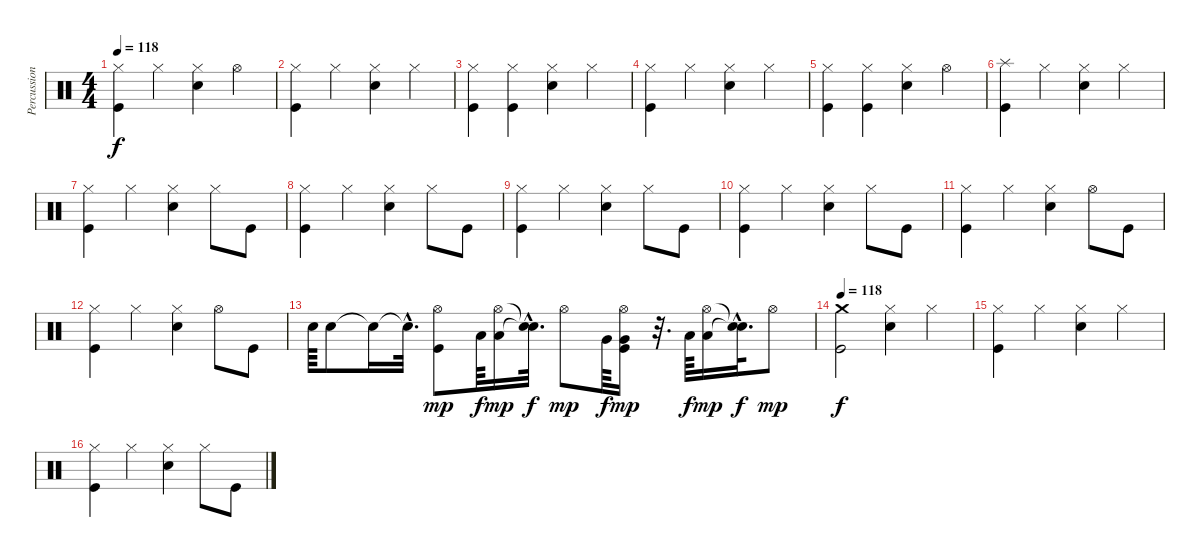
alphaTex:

\track ("Percussioni" "Percussion") {instrument percussion}
\staff {score}
\articulation defaults
\ts (4 4)
\tempo 118
\clef neutral
\ks c
("Hi-Hat (closed)" "Kick (hit)").4{dy f} "Hi-Hat (closed)".4 ("Hi-Hat (closed)" "Snare (hit) 2").4 "Hi-Hat (open)".4 |
("Hi-Hat (closed)" "Kick (hit)").4 "Hi-Hat (closed)".4 ("Hi-Hat (closed)" "Snare (hit) 2").4 "Hi-Hat (closed)".4 |
("Hi-Hat (closed)" "Kick (hit)").4 ("Hi-Hat (closed)" "Kick (hit)").4 ("Hi-Hat (closed)" "Snare (hit) 2").4 "Hi-Hat (closed)".4 |
("Hi-Hat (closed)" "Kick (hit)").4 "Hi-Hat (closed)".4 ("Hi-Hat (closed)" "Snare (hit) 2").4 "Hi-Hat (closed)".4 |
("Hi-Hat (closed)" "Kick (hit)").4 ("Hi-Hat (closed)" "Kick (hit)").4 ("Hi-Hat (closed)" "Snare (hit) 2").4 "Hi-Hat (open)".4 |
("Splash (hit)" "Kick (hit)").4 "Hi-Hat (closed)".4 ("Hi-Hat (closed)" "Snare (hit) 2").4 "Hi-Hat (closed)".4 |
("Hi-Hat (closed)" "Kick (hit)").4 "Hi-Hat (closed)".4 ("Hi-Hat (closed)" "Snare (hit) 2").4 "Hi-Hat (closed)".8 "Kick (hit)".8 |
("Hi-Hat (closed)" "Kick (hit)").4 "Hi-Hat (closed)".4 ("Hi-Hat (closed)" "Snare (hit) 2").4 "Hi-Hat (closed)".8 "Kick (hit)".8 |
("Hi-Hat (closed)" "Kick (hit)").4 "Hi-Hat (closed)".4 ("Hi-Hat (closed)" "Snare (hit) 2").4 "Hi-Hat (closed)".8 "Kick (hit)".8 |
("Hi-Hat (closed)" "Kick (hit)").4 "Hi-Hat (closed)".4 ("Hi-Hat (closed)" "Snare (hit) 2").4 "Hi-Hat (closed)".8 "Kick (hit)".8 |
("Hi-Hat (closed)" "Kick (hit)").4 "Hi-Hat (closed)".4 ("Hi-Hat (closed)" "Snare (hit) 2").4 "Hi-Hat (open)".8 "Kick (hit)".8 |
("Hi-Hat (closed)" "Kick (hit)").4 "Hi-Hat (closed)".4 ("Hi-Hat (closed)" "Snare (hit) 2").4 "Hi-Hat (open)".8 "Kick (hit)".8 |
"Snare (hit) 2".64 "Snare (hit) 2".8 "Snare (hit)"{t}.16 "Snare (hit)"{hac t}.32{d} ("Hi-Hat (open)" "Kick (hit)").8{dy mp} "Low Tom (hit)".64{dy f} ("Low Tom (hit)" "Hi-Hat (open)").16{dy mp} ("Snare (hit)"{hac t} "Snare (hit)"{hac t}).32{d dy f} "Hi-Hat (open)".8{dy mp} "Very Low Tom (hit)".64{dy f} ("Very Low Tom (hit)" "Hi-Hat (open)" "Kick (hit)").16{dy mp} r.32{d} "Low Floor Tom (hit)".64{dy f} ("Low Floor Tom (hit)" "Hi-Hat (open)").16{dy mp} ("Snare (hit)"{hac t} "Snare (hit)"{hac t}).32{d dy f} "Hi-Hat (open)".8{dy mp} |
\tempo 118
("Crash medium (hit)" "Kick (hit)").2{dy f} ("Hi-Hat (closed)" "Snare (hit) 2").4 "Hi-Hat (closed)".4 |
("Hi-Hat (closed)" "Kick (hit)").4 "Hi-Hat (closed)".4 ("Hi-Hat (closed)" "Snare (hit) 2").4 "Hi-Hat (closed)".4 |
("Hi-Hat (closed)" "Kick (hit)").4 "Hi-Hat (closed)".4 ("Hi-Hat (closed)" "Snare (hit) 2").4 "Hi-Hat (closed)".8 "Kick (hit)".8
